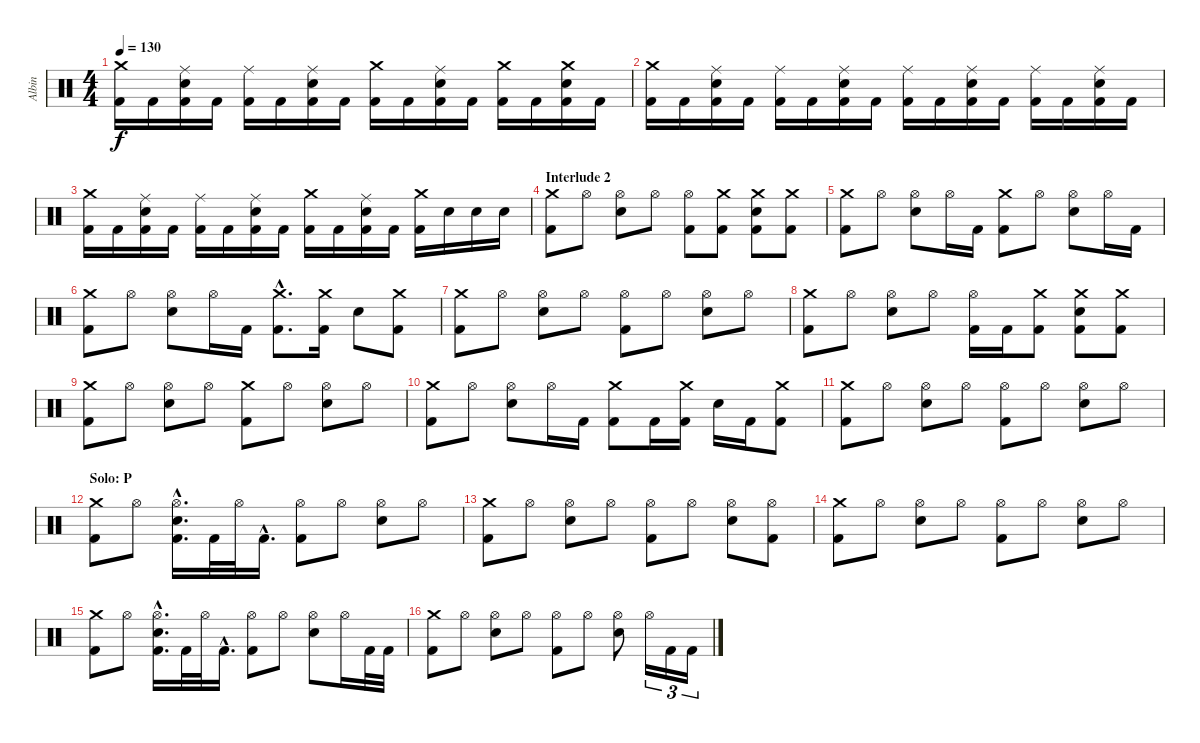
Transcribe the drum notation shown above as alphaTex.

\track ("Albin" "Albin") {instrument percussion}
\staff {score}
\articulation defaults
\ts (4 4)
\tempo 130
\clef neutral
\ks c
("Crash medium (hit)" "Kick (hit) 2").16{dy f} "Kick (hit) 2".16 ("Ride (middle)" "Electric Snare (hit)" "Kick (hit) 2").16 "Kick (hit) 2".16 ("Ride (middle)" "Kick (hit) 2").16 "Kick (hit) 2".16 ("Ride (middle)" "Electric Snare (hit)" "Kick (hit) 2").16 "Kick (hit) 2".16 ("Crash medium (hit)" "Kick (hit) 2").16 "Kick (hit) 2".16 ("Ride (middle)" "Electric Snare (hit)" "Kick (hit) 2").16 "Kick (hit) 2".16 ("Crash medium (hit)" "Kick (hit) 2").16 "Kick (hit) 2".16 ("Crash medium (hit)" "Electric Snare (hit)" "Kick (hit) 2").16 "Kick (hit) 2".16 |
("Crash medium (hit)" "Kick (hit) 2").16 "Kick (hit) 2".16 ("Ride (middle)" "Electric Snare (hit)" "Kick (hit) 2").16 "Kick (hit) 2".16 ("Ride (middle)" "Kick (hit) 2").16 "Kick (hit) 2".16 ("Ride (middle)" "Electric Snare (hit)" "Kick (hit) 2").16 "Kick (hit) 2".16 ("Ride (middle)" "Kick (hit) 2").16 "Kick (hit) 2".16 ("Ride (middle)" "Electric Snare (hit)" "Kick (hit) 2").16 "Kick (hit) 2".16 ("Ride (middle)" "Kick (hit) 2").16 "Kick (hit) 2".16 ("Ride (middle)" "Electric Snare (hit)" "Kick (hit) 2").16 "Kick (hit) 2".16 |
("Crash medium (hit)" "Kick (hit) 2").16 "Kick (hit) 2".16 ("Ride (middle)" "Electric Snare (hit)" "Kick (hit) 2").16 "Kick (hit) 2".16 ("Ride (middle)" "Kick (hit) 2").16 "Kick (hit) 2".16 ("Ride (middle)" "Electric Snare (hit)" "Kick (hit) 2").16 "Kick (hit) 2".16 ("Crash medium (hit)" "Kick (hit) 2").16 "Kick (hit) 2".16 ("Ride (middle)" "Electric Snare (hit)" "Kick (hit) 2").16 "Kick (hit) 2".16 ("Crash medium (hit)" "Kick (hit) 2").16 "Electric Snare (hit)".16 "Electric Snare (hit)".16 "Electric Snare (hit)".16 |
\section ("" "Interlude 2")
("Crash medium (hit)" "Kick (hit) 2").8 "Hi-Hat (open)".8 ("Hi-Hat (open)" "Electric Snare (hit)").8 "Hi-Hat (open)".8 ("Hi-Hat (open)" "Kick (hit) 2").8 ("Crash medium (hit)" "Kick (hit) 2").8 ("Crash medium (hit)" "Electric Snare (hit)" "Kick (hit) 2").8 ("Crash medium (hit)" "Kick (hit) 2").8 |
("Crash medium (hit)" "Kick (hit) 2").8 "Hi-Hat (open)".8 ("Hi-Hat (open)" "Electric Snare (hit)").8 "Hi-Hat (open)".16 "Kick (hit) 2".16 ("Crash medium (hit)" "Kick (hit) 2").8 "Hi-Hat (open)".8 ("Hi-Hat (open)" "Electric Snare (hit)").8 "Hi-Hat (open)".16 "Kick (hit) 2".16 |
("Crash medium (hit)" "Kick (hit) 2").8 "Hi-Hat (open)".8 ("Hi-Hat (open)" "Electric Snare (hit)").8 "Hi-Hat (open)".16 "Kick (hit) 2".16 ("Crash medium (hit)"{hac} "Kick (hit) 2"{hac}).8{d} ("Crash medium (hit)" "Kick (hit) 2").16 "Electric Snare (hit)".8 ("Crash medium (hit)" "Kick (hit) 2").8 |
("Crash medium (hit)" "Kick (hit) 2").8 "Hi-Hat (open)".8 ("Hi-Hat (open)" "Electric Snare (hit)").8 "Hi-Hat (open)".8 ("Hi-Hat (open)" "Kick (hit) 2").8 "Hi-Hat (open)".8 ("Hi-Hat (open)" "Electric Snare (hit)").8 "Hi-Hat (open)".8 |
("Crash medium (hit)" "Kick (hit) 2").8 "Hi-Hat (open)".8 ("Hi-Hat (open)" "Electric Snare (hit)").8 "Hi-Hat (open)".8 ("Hi-Hat (open)" "Kick (hit) 2").16 "Kick (hit) 2".16 ("Crash medium (hit)" "Kick (hit) 2").8 ("Crash medium (hit)" "Electric Snare (hit)" "Kick (hit) 2").8 ("Crash medium (hit)" "Kick (hit) 2").8 |
("Crash medium (hit)" "Kick (hit) 2").8 "Hi-Hat (open)".8 ("Hi-Hat (open)" "Electric Snare (hit)").8 "Hi-Hat (open)".8 ("Crash medium (hit)" "Kick (hit) 2").8 "Hi-Hat (open)".8 ("Hi-Hat (open)" "Electric Snare (hit)").8 "Hi-Hat (open)".8 |
("Crash medium (hit)" "Kick (hit) 2").8 "Hi-Hat (open)".8 ("Hi-Hat (open)" "Electric Snare (hit)").8 "Hi-Hat (open)".16 "Kick (hit) 2".16 ("Crash medium (hit)" "Kick (hit) 2").8 "Kick (hit) 2".16 ("Crash medium (hit)" "Kick (hit) 2").16 "Electric Snare (hit)".16 "Kick (hit) 2".16 ("Crash medium (hit)" "Kick (hit) 2").8 |
("Crash medium (hit)" "Kick (hit) 2").8 "Hi-Hat (open)".8 ("Hi-Hat (open)" "Electric Snare (hit)").8 "Hi-Hat (open)".8 ("Hi-Hat (open)" "Kick (hit) 2").8 "Hi-Hat (open)".8 ("Hi-Hat (open)" "Electric Snare (hit)").8 "Hi-Hat (open)".8 |
\section ("" "Solo: P")
("Crash medium (hit)" "Kick (hit) 2").8 "Hi-Hat (open)".8 ("Hi-Hat (open)"{hac} "Electric Snare (hit)"{hac} "Kick (hit) 2"{hac}).16{d} "Kick (hit) 2".32 "Hi-Hat (open)".32 "Kick (hit) 2"{hac}.16{d} ("Hi-Hat (open)" "Kick (hit) 2").8 "Hi-Hat (open)".8 ("Hi-Hat (open)" "Electric Snare (hit)").8 "Hi-Hat (open)".8 |
("Crash medium (hit)" "Kick (hit) 2").8 "Hi-Hat (open)".8 ("Hi-Hat (open)" "Electric Snare (hit)").8 "Hi-Hat (open)".8 ("Hi-Hat (open)" "Kick (hit) 2").8 "Hi-Hat (open)".8 ("Hi-Hat (open)" "Electric Snare (hit)").8 ("Hi-Hat (open)" "Kick (hit) 2").8 |
("Crash medium (hit)" "Kick (hit) 2").8 "Hi-Hat (open)".8 ("Hi-Hat (open)" "Electric Snare (hit)").8 "Hi-Hat (open)".8 ("Hi-Hat (open)" "Kick (hit) 2").8 "Hi-Hat (open)".8 ("Hi-Hat (open)" "Electric Snare (hit)").8 "Hi-Hat (open)".8 |
("Crash medium (hit)" "Kick (hit) 2").8 "Hi-Hat (open)".8 ("Hi-Hat (open)"{hac} "Electric Snare (hit)"{hac} "Kick (hit) 2"{hac}).16{d} "Kick (hit) 2".32 "Hi-Hat (open)".32 "Kick (hit) 2"{hac}.16{d} ("Hi-Hat (open)" "Kick (hit) 2").8 "Hi-Hat (open)".8 ("Hi-Hat (open)" "Electric Snare (hit)").8 "Hi-Hat (open)".16 "Kick (hit) 2".32 "Kick (hit) 2".32 |
("Crash medium (hit)" "Kick (hit) 2").8 "Hi-Hat (open)".8 ("Hi-Hat (open)" "Electric Snare (hit)").8 "Hi-Hat (open)".8 ("Hi-Hat (open)" "Kick (hit) 2").8 "Hi-Hat (open)".8 ("Hi-Hat (open)" "Electric Snare (hit)").8 "Hi-Hat (open)".16{tu (3 2)} "Kick (hit) 2".16{tu (3 2)} "Kick (hit) 2".16{tu (3 2)}
